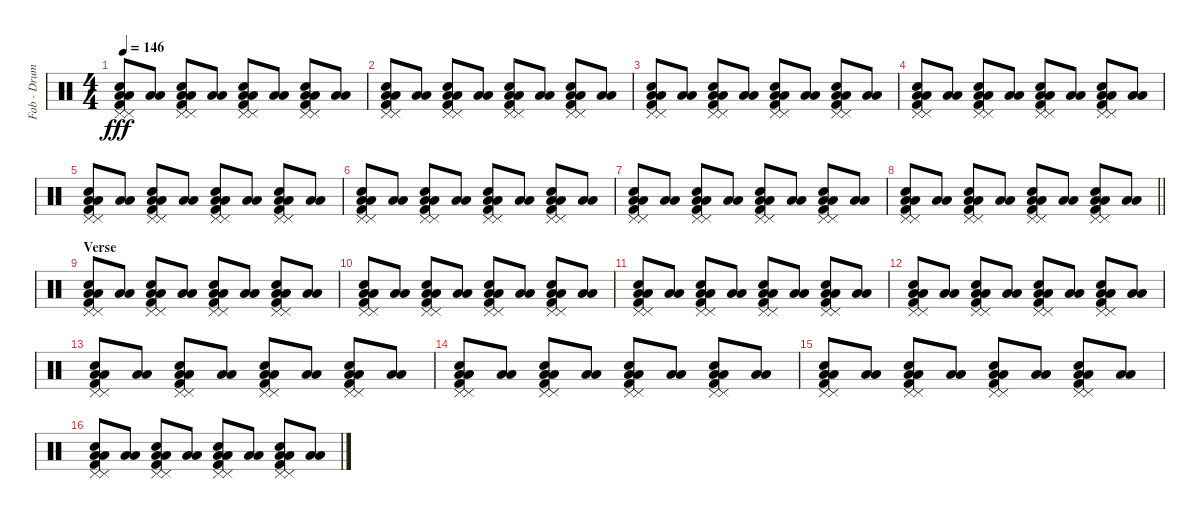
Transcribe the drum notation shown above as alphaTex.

\track ("Fab - Drums MIDI" "Fab - Drum") {instrument percussion}
\staff {score}
\articulation defaults
\ts (4 4)
\tempo 146
\clef neutral
\ks c
("Low Floor Tom (hit)" "Pedal Hi-Hat (hit)" "Snare (hit) 2" "Kick (hit) 2" "Pedal Hi-Hat (hit)" "Low Floor Tom (hit)").8{dy fff} ("Low Floor Tom (hit)" "Low Floor Tom (hit)").8 ("Low Floor Tom (hit)" "Pedal Hi-Hat (hit)" "Snare (hit) 2" "Kick (hit) 2" "Pedal Hi-Hat (hit)" "Low Floor Tom (hit)").8 ("Low Floor Tom (hit)" "Low Floor Tom (hit)").8 ("Low Floor Tom (hit)" "Pedal Hi-Hat (hit)" "Snare (hit) 2" "Kick (hit) 2" "Pedal Hi-Hat (hit)" "Low Floor Tom (hit)").8 ("Low Floor Tom (hit)" "Low Floor Tom (hit)").8 ("Low Floor Tom (hit)" "Pedal Hi-Hat (hit)" "Snare (hit) 2" "Kick (hit) 2" "Pedal Hi-Hat (hit)" "Low Floor Tom (hit)").8 ("Low Floor Tom (hit)" "Low Floor Tom (hit)").8 |
("Low Floor Tom (hit)" "Pedal Hi-Hat (hit)" "Snare (hit) 2" "Kick (hit) 2" "Pedal Hi-Hat (hit)" "Low Floor Tom (hit)").8 ("Low Floor Tom (hit)" "Low Floor Tom (hit)").8 ("Low Floor Tom (hit)" "Pedal Hi-Hat (hit)" "Snare (hit) 2" "Kick (hit) 2" "Pedal Hi-Hat (hit)" "Low Floor Tom (hit)").8 ("Low Floor Tom (hit)" "Low Floor Tom (hit)").8 ("Low Floor Tom (hit)" "Pedal Hi-Hat (hit)" "Snare (hit) 2" "Kick (hit) 2" "Pedal Hi-Hat (hit)" "Low Floor Tom (hit)").8 ("Low Floor Tom (hit)" "Low Floor Tom (hit)").8 ("Low Floor Tom (hit)" "Pedal Hi-Hat (hit)" "Snare (hit) 2" "Kick (hit) 2" "Pedal Hi-Hat (hit)" "Low Floor Tom (hit)").8 ("Low Floor Tom (hit)" "Low Floor Tom (hit)").8 |
("Low Floor Tom (hit)" "Pedal Hi-Hat (hit)" "Snare (hit) 2" "Kick (hit) 2" "Pedal Hi-Hat (hit)" "Low Floor Tom (hit)").8 ("Low Floor Tom (hit)" "Low Floor Tom (hit)").8 ("Low Floor Tom (hit)" "Pedal Hi-Hat (hit)" "Snare (hit) 2" "Kick (hit) 2" "Pedal Hi-Hat (hit)" "Low Floor Tom (hit)").8 ("Low Floor Tom (hit)" "Low Floor Tom (hit)").8 ("Low Floor Tom (hit)" "Pedal Hi-Hat (hit)" "Snare (hit) 2" "Kick (hit) 2" "Pedal Hi-Hat (hit)" "Low Floor Tom (hit)").8 ("Low Floor Tom (hit)" "Low Floor Tom (hit)").8 ("Low Floor Tom (hit)" "Pedal Hi-Hat (hit)" "Snare (hit) 2" "Kick (hit) 2" "Pedal Hi-Hat (hit)" "Low Floor Tom (hit)").8 ("Low Floor Tom (hit)" "Low Floor Tom (hit)").8 |
("Low Floor Tom (hit)" "Pedal Hi-Hat (hit)" "Snare (hit) 2" "Kick (hit) 2" "Pedal Hi-Hat (hit)" "Low Floor Tom (hit)").8 ("Low Floor Tom (hit)" "Low Floor Tom (hit)").8 ("Low Floor Tom (hit)" "Pedal Hi-Hat (hit)" "Snare (hit) 2" "Kick (hit) 2" "Pedal Hi-Hat (hit)" "Low Floor Tom (hit)").8 ("Low Floor Tom (hit)" "Low Floor Tom (hit)").8 ("Low Floor Tom (hit)" "Pedal Hi-Hat (hit)" "Snare (hit) 2" "Kick (hit) 2" "Pedal Hi-Hat (hit)" "Low Floor Tom (hit)").8 ("Low Floor Tom (hit)" "Low Floor Tom (hit)").8 ("Low Floor Tom (hit)" "Pedal Hi-Hat (hit)" "Snare (hit) 2" "Kick (hit) 2" "Pedal Hi-Hat (hit)" "Low Floor Tom (hit)").8 ("Low Floor Tom (hit)" "Low Floor Tom (hit)").8 |
("Low Floor Tom (hit)" "Pedal Hi-Hat (hit)" "Snare (hit) 2" "Kick (hit) 2" "Pedal Hi-Hat (hit)" "Low Floor Tom (hit)").8 ("Low Floor Tom (hit)" "Low Floor Tom (hit)").8 ("Low Floor Tom (hit)" "Pedal Hi-Hat (hit)" "Snare (hit) 2" "Kick (hit) 2" "Pedal Hi-Hat (hit)" "Low Floor Tom (hit)").8 ("Low Floor Tom (hit)" "Low Floor Tom (hit)").8 ("Low Floor Tom (hit)" "Pedal Hi-Hat (hit)" "Snare (hit) 2" "Kick (hit) 2" "Pedal Hi-Hat (hit)" "Low Floor Tom (hit)").8 ("Low Floor Tom (hit)" "Low Floor Tom (hit)").8 ("Low Floor Tom (hit)" "Pedal Hi-Hat (hit)" "Snare (hit) 2" "Kick (hit) 2" "Pedal Hi-Hat (hit)" "Low Floor Tom (hit)").8 ("Low Floor Tom (hit)" "Low Floor Tom (hit)").8 |
("Low Floor Tom (hit)" "Pedal Hi-Hat (hit)" "Snare (hit) 2" "Kick (hit) 2" "Pedal Hi-Hat (hit)" "Low Floor Tom (hit)").8 ("Low Floor Tom (hit)" "Low Floor Tom (hit)").8 ("Low Floor Tom (hit)" "Pedal Hi-Hat (hit)" "Snare (hit) 2" "Kick (hit) 2" "Pedal Hi-Hat (hit)" "Low Floor Tom (hit)").8 ("Low Floor Tom (hit)" "Low Floor Tom (hit)").8 ("Low Floor Tom (hit)" "Pedal Hi-Hat (hit)" "Snare (hit) 2" "Kick (hit) 2" "Pedal Hi-Hat (hit)" "Low Floor Tom (hit)").8 ("Low Floor Tom (hit)" "Low Floor Tom (hit)").8 ("Low Floor Tom (hit)" "Pedal Hi-Hat (hit)" "Snare (hit) 2" "Kick (hit) 2" "Pedal Hi-Hat (hit)" "Low Floor Tom (hit)").8 ("Low Floor Tom (hit)" "Low Floor Tom (hit)").8 |
("Low Floor Tom (hit)" "Pedal Hi-Hat (hit)" "Snare (hit) 2" "Kick (hit) 2" "Pedal Hi-Hat (hit)" "Low Floor Tom (hit)").8 ("Low Floor Tom (hit)" "Low Floor Tom (hit)").8 ("Low Floor Tom (hit)" "Pedal Hi-Hat (hit)" "Snare (hit) 2" "Kick (hit) 2" "Pedal Hi-Hat (hit)" "Low Floor Tom (hit)").8 ("Low Floor Tom (hit)" "Low Floor Tom (hit)").8 ("Low Floor Tom (hit)" "Pedal Hi-Hat (hit)" "Snare (hit) 2" "Kick (hit) 2" "Pedal Hi-Hat (hit)" "Low Floor Tom (hit)").8 ("Low Floor Tom (hit)" "Low Floor Tom (hit)").8 ("Low Floor Tom (hit)" "Pedal Hi-Hat (hit)" "Snare (hit) 2" "Kick (hit) 2" "Pedal Hi-Hat (hit)" "Low Floor Tom (hit)").8 ("Low Floor Tom (hit)" "Low Floor Tom (hit)").8 |
\barLineRight lightlight
("Low Floor Tom (hit)" "Pedal Hi-Hat (hit)" "Snare (hit) 2" "Kick (hit) 2" "Pedal Hi-Hat (hit)" "Low Floor Tom (hit)").8 ("Low Floor Tom (hit)" "Low Floor Tom (hit)").8 ("Low Floor Tom (hit)" "Pedal Hi-Hat (hit)" "Snare (hit) 2" "Kick (hit) 2" "Pedal Hi-Hat (hit)" "Low Floor Tom (hit)").8 ("Low Floor Tom (hit)" "Low Floor Tom (hit)").8 ("Low Floor Tom (hit)" "Pedal Hi-Hat (hit)" "Snare (hit) 2" "Kick (hit) 2" "Pedal Hi-Hat (hit)" "Low Floor Tom (hit)").8 ("Low Floor Tom (hit)" "Low Floor Tom (hit)").8 ("Low Floor Tom (hit)" "Pedal Hi-Hat (hit)" "Snare (hit) 2" "Kick (hit) 2" "Pedal Hi-Hat (hit)" "Low Floor Tom (hit)").8 ("Low Floor Tom (hit)" "Low Floor Tom (hit)").8 |
\section ("" "Verse")
("Low Floor Tom (hit)" "Pedal Hi-Hat (hit)" "Snare (hit) 2" "Kick (hit) 2" "Pedal Hi-Hat (hit)" "Low Floor Tom (hit)").8 ("Low Floor Tom (hit)" "Low Floor Tom (hit)").8 ("Low Floor Tom (hit)" "Pedal Hi-Hat (hit)" "Snare (hit) 2" "Kick (hit) 2" "Pedal Hi-Hat (hit)" "Low Floor Tom (hit)").8 ("Low Floor Tom (hit)" "Low Floor Tom (hit)").8 ("Low Floor Tom (hit)" "Pedal Hi-Hat (hit)" "Snare (hit) 2" "Kick (hit) 2" "Pedal Hi-Hat (hit)" "Low Floor Tom (hit)").8 ("Low Floor Tom (hit)" "Low Floor Tom (hit)").8 ("Low Floor Tom (hit)" "Pedal Hi-Hat (hit)" "Snare (hit) 2" "Kick (hit) 2" "Pedal Hi-Hat (hit)" "Low Floor Tom (hit)").8 ("Low Floor Tom (hit)" "Low Floor Tom (hit)").8 |
("Low Floor Tom (hit)" "Pedal Hi-Hat (hit)" "Snare (hit) 2" "Kick (hit) 2" "Pedal Hi-Hat (hit)" "Low Floor Tom (hit)").8 ("Low Floor Tom (hit)" "Low Floor Tom (hit)").8 ("Low Floor Tom (hit)" "Pedal Hi-Hat (hit)" "Snare (hit) 2" "Kick (hit) 2" "Pedal Hi-Hat (hit)" "Low Floor Tom (hit)").8 ("Low Floor Tom (hit)" "Low Floor Tom (hit)").8 ("Low Floor Tom (hit)" "Pedal Hi-Hat (hit)" "Snare (hit) 2" "Kick (hit) 2" "Pedal Hi-Hat (hit)" "Low Floor Tom (hit)").8 ("Low Floor Tom (hit)" "Low Floor Tom (hit)").8 ("Low Floor Tom (hit)" "Pedal Hi-Hat (hit)" "Snare (hit) 2" "Kick (hit) 2" "Pedal Hi-Hat (hit)" "Low Floor Tom (hit)").8 ("Low Floor Tom (hit)" "Low Floor Tom (hit)").8 |
("Low Floor Tom (hit)" "Pedal Hi-Hat (hit)" "Snare (hit) 2" "Kick (hit) 2" "Pedal Hi-Hat (hit)" "Low Floor Tom (hit)").8 ("Low Floor Tom (hit)" "Low Floor Tom (hit)").8 ("Low Floor Tom (hit)" "Pedal Hi-Hat (hit)" "Snare (hit) 2" "Kick (hit) 2" "Pedal Hi-Hat (hit)" "Low Floor Tom (hit)").8 ("Low Floor Tom (hit)" "Low Floor Tom (hit)").8 ("Low Floor Tom (hit)" "Pedal Hi-Hat (hit)" "Snare (hit) 2" "Kick (hit) 2" "Pedal Hi-Hat (hit)" "Low Floor Tom (hit)").8 ("Low Floor Tom (hit)" "Low Floor Tom (hit)").8 ("Low Floor Tom (hit)" "Pedal Hi-Hat (hit)" "Snare (hit) 2" "Kick (hit) 2" "Pedal Hi-Hat (hit)" "Low Floor Tom (hit)").8 ("Low Floor Tom (hit)" "Low Floor Tom (hit)").8 |
("Low Floor Tom (hit)" "Pedal Hi-Hat (hit)" "Snare (hit) 2" "Kick (hit) 2" "Pedal Hi-Hat (hit)" "Low Floor Tom (hit)").8 ("Low Floor Tom (hit)" "Low Floor Tom (hit)").8 ("Low Floor Tom (hit)" "Pedal Hi-Hat (hit)" "Snare (hit) 2" "Kick (hit) 2" "Pedal Hi-Hat (hit)" "Low Floor Tom (hit)").8 ("Low Floor Tom (hit)" "Low Floor Tom (hit)").8 ("Low Floor Tom (hit)" "Pedal Hi-Hat (hit)" "Snare (hit) 2" "Kick (hit) 2" "Pedal Hi-Hat (hit)" "Low Floor Tom (hit)").8 ("Low Floor Tom (hit)" "Low Floor Tom (hit)").8 ("Low Floor Tom (hit)" "Pedal Hi-Hat (hit)" "Snare (hit) 2" "Kick (hit) 2" "Pedal Hi-Hat (hit)" "Low Floor Tom (hit)").8 ("Low Floor Tom (hit)" "Low Floor Tom (hit)").8 |
("Low Floor Tom (hit)" "Pedal Hi-Hat (hit)" "Snare (hit) 2" "Kick (hit) 2" "Pedal Hi-Hat (hit)" "Low Floor Tom (hit)").8 ("Low Floor Tom (hit)" "Low Floor Tom (hit)").8 ("Low Floor Tom (hit)" "Pedal Hi-Hat (hit)" "Snare (hit) 2" "Kick (hit) 2" "Pedal Hi-Hat (hit)" "Low Floor Tom (hit)").8 ("Low Floor Tom (hit)" "Low Floor Tom (hit)").8 ("Low Floor Tom (hit)" "Pedal Hi-Hat (hit)" "Snare (hit) 2" "Kick (hit) 2" "Pedal Hi-Hat (hit)" "Low Floor Tom (hit)").8 ("Low Floor Tom (hit)" "Low Floor Tom (hit)").8 ("Low Floor Tom (hit)" "Pedal Hi-Hat (hit)" "Snare (hit) 2" "Kick (hit) 2" "Pedal Hi-Hat (hit)" "Low Floor Tom (hit)").8 ("Low Floor Tom (hit)" "Low Floor Tom (hit)").8 |
("Low Floor Tom (hit)" "Pedal Hi-Hat (hit)" "Snare (hit) 2" "Kick (hit) 2" "Pedal Hi-Hat (hit)" "Low Floor Tom (hit)").8 ("Low Floor Tom (hit)" "Low Floor Tom (hit)").8 ("Low Floor Tom (hit)" "Pedal Hi-Hat (hit)" "Snare (hit) 2" "Kick (hit) 2" "Pedal Hi-Hat (hit)" "Low Floor Tom (hit)").8 ("Low Floor Tom (hit)" "Low Floor Tom (hit)").8 ("Low Floor Tom (hit)" "Pedal Hi-Hat (hit)" "Snare (hit) 2" "Kick (hit) 2" "Pedal Hi-Hat (hit)" "Low Floor Tom (hit)").8 ("Low Floor Tom (hit)" "Low Floor Tom (hit)").8 ("Low Floor Tom (hit)" "Pedal Hi-Hat (hit)" "Snare (hit) 2" "Kick (hit) 2" "Pedal Hi-Hat (hit)" "Low Floor Tom (hit)").8 ("Low Floor Tom (hit)" "Low Floor Tom (hit)").8 |
("Low Floor Tom (hit)" "Pedal Hi-Hat (hit)" "Snare (hit) 2" "Kick (hit) 2" "Pedal Hi-Hat (hit)" "Low Floor Tom (hit)").8 ("Low Floor Tom (hit)" "Low Floor Tom (hit)").8 ("Low Floor Tom (hit)" "Pedal Hi-Hat (hit)" "Snare (hit) 2" "Kick (hit) 2" "Pedal Hi-Hat (hit)" "Low Floor Tom (hit)").8 ("Low Floor Tom (hit)" "Low Floor Tom (hit)").8 ("Low Floor Tom (hit)" "Pedal Hi-Hat (hit)" "Snare (hit) 2" "Kick (hit) 2" "Pedal Hi-Hat (hit)" "Low Floor Tom (hit)").8 ("Low Floor Tom (hit)" "Low Floor Tom (hit)").8 ("Low Floor Tom (hit)" "Pedal Hi-Hat (hit)" "Snare (hit) 2" "Kick (hit) 2" "Pedal Hi-Hat (hit)" "Low Floor Tom (hit)").8 ("Low Floor Tom (hit)" "Low Floor Tom (hit)").8 |
("Low Floor Tom (hit)" "Pedal Hi-Hat (hit)" "Snare (hit) 2" "Kick (hit) 2" "Pedal Hi-Hat (hit)" "Low Floor Tom (hit)").8 ("Low Floor Tom (hit)" "Low Floor Tom (hit)").8 ("Low Floor Tom (hit)" "Pedal Hi-Hat (hit)" "Snare (hit) 2" "Kick (hit) 2" "Pedal Hi-Hat (hit)" "Low Floor Tom (hit)").8 ("Low Floor Tom (hit)" "Low Floor Tom (hit)").8 ("Low Floor Tom (hit)" "Pedal Hi-Hat (hit)" "Snare (hit) 2" "Kick (hit) 2" "Pedal Hi-Hat (hit)" "Low Floor Tom (hit)").8 ("Low Floor Tom (hit)" "Low Floor Tom (hit)").8 ("Low Floor Tom (hit)" "Pedal Hi-Hat (hit)" "Snare (hit) 2" "Kick (hit) 2" "Pedal Hi-Hat (hit)" "Low Floor Tom (hit)").8 ("Low Floor Tom (hit)" "Low Floor Tom (hit)").8
